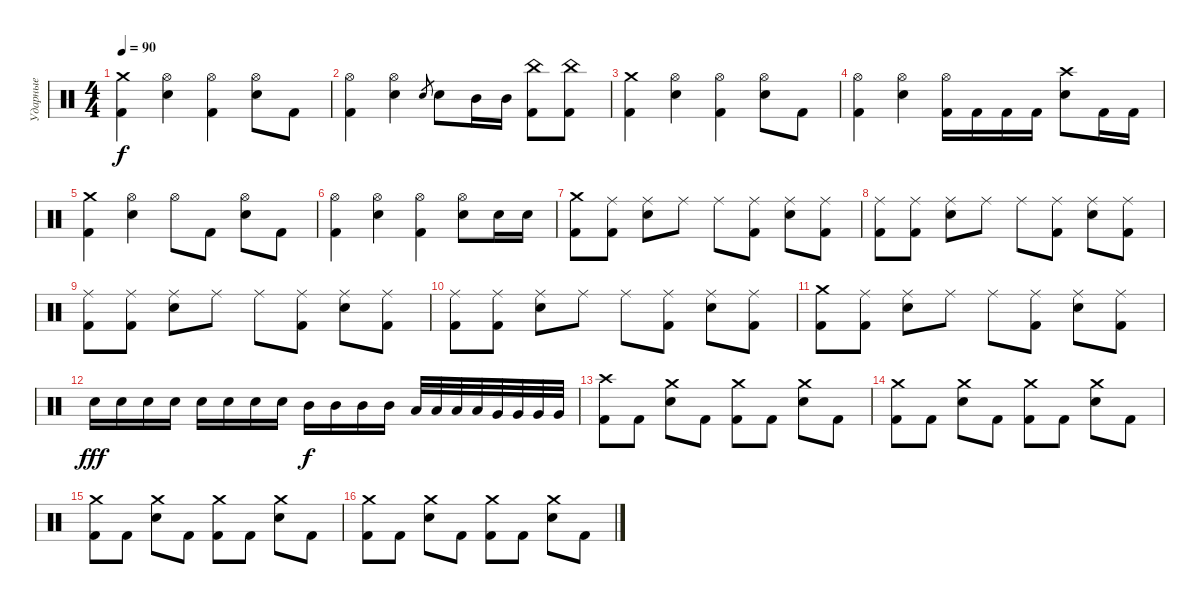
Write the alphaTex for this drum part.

\track ("Ударные" "Ударные") {instrument percussion}
\staff {score}
\articulation defaults
\ts (4 4)
\tempo 90
\clef neutral
\ks c
("Crash medium (hit)" "Kick (hit) 2").4{dy f} ("Hi-Hat (open)" "Electric Snare (hit)").4 ("Hi-Hat (open)" "Kick (hit) 2").4 ("Hi-Hat (open)" "Electric Snare (hit)").8 "Kick (hit) 2".8 |
("Hi-Hat (open)" "Kick (hit) 2").4 ("Hi-Hat (open)" "Electric Snare (hit)").4 "Electric Snare (hit)".8{gr} "Electric Snare (hit)".8 "Mid Tom (hit)".16 "Mid Tom (hit)".16 ("China (hit)" "Kick (hit) 2").8 ("China (hit)" "Kick (hit) 2").8 |
("Crash medium (hit)" "Kick (hit) 2").4 ("Hi-Hat (open)" "Electric Snare (hit)").4 ("Hi-Hat (open)" "Kick (hit) 2").4 ("Hi-Hat (open)" "Electric Snare (hit)").8 "Kick (hit) 2".8 |
("Hi-Hat (open)" "Kick (hit) 2").4 ("Hi-Hat (open)" "Electric Snare (hit)").4 ("Hi-Hat (open)" "Kick (hit) 2").16 "Kick (hit) 2".16 "Kick (hit) 2".16 "Kick (hit) 2".16 ("Crash high (hit)" "Electric Snare (hit)").8 "Kick (hit) 2".16 "Kick (hit) 2".16 |
("Crash medium (hit)" "Kick (hit) 2").4 ("Hi-Hat (open)" "Electric Snare (hit)").4 "Hi-Hat (open)".8 "Kick (hit) 2".8 ("Hi-Hat (open)" "Electric Snare (hit)").8 "Kick (hit) 2".8 |
("Hi-Hat (open)" "Kick (hit) 2").4 ("Hi-Hat (open)" "Electric Snare (hit)").4 ("Hi-Hat (open)" "Kick (hit) 2").4 ("Hi-Hat (open)" "Electric Snare (hit)").8 "Electric Snare (hit)".16 "Electric Snare (hit)".16 |
("Crash medium (hit)" "Kick (hit) 2").8 ("Ride (middle)" "Kick (hit) 2").8 ("Ride (middle)" "Electric Snare (hit)").8 "Ride (middle)".8 "Ride (middle)".8 ("Ride (middle)" "Kick (hit) 2").8 ("Ride (middle)" "Electric Snare (hit)").8 ("Ride (middle)" "Kick (hit) 2").8 |
("Ride (middle)" "Kick (hit) 2").8 ("Ride (middle)" "Kick (hit) 2").8 ("Ride (middle)" "Electric Snare (hit)").8 "Ride (middle)".8 "Ride (middle)".8 ("Ride (middle)" "Kick (hit) 2").8 ("Ride (middle)" "Electric Snare (hit)").8 ("Ride (middle)" "Kick (hit) 2").8 |
("Ride (middle)" "Kick (hit) 2").8 ("Ride (middle)" "Kick (hit) 2").8 ("Ride (middle)" "Electric Snare (hit)").8 "Ride (middle)".8 "Ride (middle)".8 ("Ride (middle)" "Kick (hit) 2").8 ("Ride (middle)" "Electric Snare (hit)").8 ("Ride (middle)" "Kick (hit) 2").8 |
("Ride (middle)" "Kick (hit) 2").8 ("Ride (middle)" "Kick (hit) 2").8 ("Ride (middle)" "Electric Snare (hit)").8 "Ride (middle)".8 "Ride (middle)".8 ("Ride (middle)" "Kick (hit) 2").8 ("Ride (middle)" "Electric Snare (hit)").8 ("Ride (middle)" "Kick (hit) 2").8 |
("Crash medium (hit)" "Kick (hit) 2").8 ("Ride (middle)" "Kick (hit) 2").8 ("Ride (middle)" "Electric Snare (hit)").8 "Ride (middle)".8 "Ride (middle)".8 ("Ride (middle)" "Kick (hit) 2").8 ("Ride (middle)" "Electric Snare (hit)").8 ("Ride (middle)" "Kick (hit) 2").8 |
"Electric Snare (hit)".16{dy fff} "Electric Snare (hit)".16 "Electric Snare (hit)".16 "Electric Snare (hit)".16 "Electric Snare (hit)".16 "Electric Snare (hit)".16 "Electric Snare (hit)".16 "Electric Snare (hit)".16 "Mid Tom (hit)".16{dy f} "Mid Tom (hit)".16 "Mid Tom (hit)".16 "Mid Tom (hit)".16 "Low Tom (hit)".32 "Low Tom (hit)".32 "Low Tom (hit)".32 "Low Tom (hit)".32 "Very Low Tom (hit)".32 "Very Low Tom (hit)".32 "Very Low Tom (hit)".32 "Very Low Tom (hit)".32 |
("Crash high (hit)" "Kick (hit) 2").8 "Kick (hit) 2".8 ("Crash medium (hit)" "Electric Snare (hit)").8 "Kick (hit) 2".8 ("Crash medium (hit)" "Kick (hit) 2").8 "Kick (hit) 2".8 ("Crash medium (hit)" "Electric Snare (hit)").8 "Kick (hit) 2".8 |
("Crash medium (hit)" "Kick (hit) 2").8 "Kick (hit) 2".8 ("Crash medium (hit)" "Electric Snare (hit)").8 "Kick (hit) 2".8 ("Crash medium (hit)" "Kick (hit) 2").8 "Kick (hit) 2".8 ("Crash medium (hit)" "Electric Snare (hit)").8 "Kick (hit) 2".8 |
("Crash medium (hit)" "Kick (hit) 2").8 "Kick (hit) 2".8 ("Crash medium (hit)" "Electric Snare (hit)").8 "Kick (hit) 2".8 ("Crash medium (hit)" "Kick (hit) 2").8 "Kick (hit) 2".8 ("Crash medium (hit)" "Electric Snare (hit)").8 "Kick (hit) 2".8 |
("Crash medium (hit)" "Kick (hit) 2").8 "Kick (hit) 2".8 ("Crash medium (hit)" "Electric Snare (hit)").8 "Kick (hit) 2".8 ("Crash medium (hit)" "Kick (hit) 2").8 "Kick (hit) 2".8 ("Crash medium (hit)" "Electric Snare (hit)").8 "Kick (hit) 2".8
